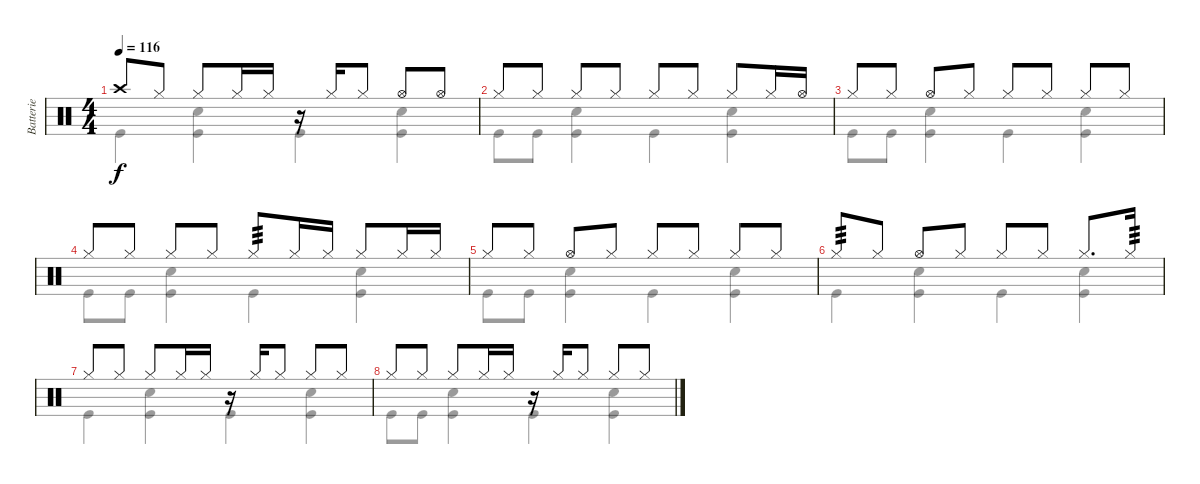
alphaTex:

\track ("Batterie" "Batterie") {instrument percussion}
\staff {score}
\articulation defaults
\voice
\ts (4 4)
\tempo 116
\clef neutral
\ks c "Crash high (hit)".8{dy f volume 5} "Hi-Hat (closed)".8 "Hi-Hat (closed)".8 "Hi-Hat (closed)".16 "Hi-Hat (closed)".16
r.16 "Hi-Hat (closed)".16 "Hi-Hat (closed)".8 "Hi-Hat (open)".8 "Hi-Hat (open)".8 |
"Hi-Hat (closed)".8 "Hi-Hat (closed)".8 "Hi-Hat (closed)".8 "Hi-Hat (closed)".8 "Hi-Hat (closed)".8 "Hi-Hat (closed)".8 "Hi-Hat (closed)".8 "Hi-Hat (closed)".16 "Hi-Hat (open)".16 |
"Hi-Hat (closed)".8 "Hi-Hat (closed)".8 "Hi-Hat (open)".8 "Hi-Hat (closed)".8 "Hi-Hat (closed)".8 "Hi-Hat (closed)".8 "Hi-Hat (closed)".8 "Hi-Hat (closed)".8 |
"Hi-Hat (closed)".8 "Hi-Hat (closed)".8 "Hi-Hat (closed)".8 "Hi-Hat (closed)".8 "Hi-Hat (closed)".8{tp 3} "Hi-Hat (closed)".16 "Hi-Hat (closed)".16 "Hi-Hat (closed)".8 "Hi-Hat (closed)".16 "Hi-Hat (closed)".16 |
"Hi-Hat (closed)".8{volume 0} "Hi-Hat (closed)".8 "Hi-Hat (open)".8 "Hi-Hat (closed)".8 "Hi-Hat (closed)".8 "Hi-Hat (closed)".8 "Hi-Hat (closed)".8 "Hi-Hat (closed)".8 |
"Hi-Hat (closed)".8{tp 3} "Hi-Hat (closed)".8 "Hi-Hat (open)".8 "Hi-Hat (closed)".8 "Hi-Hat (closed)".8 "Hi-Hat (closed)".8 "Hi-Hat (closed)".8{d} "Hi-Hat (closed)".16{tp 3} |
"Hi-Hat (closed)".8 "Hi-Hat (closed)".8 "Hi-Hat (closed)".8 "Hi-Hat (closed)".16 "Hi-Hat (closed)".16 r.16 "Hi-Hat (closed)".16 "Hi-Hat (closed)".8 "Hi-Hat (closed)".8 "Hi-Hat (closed)".8 |
"Hi-Hat (closed)".8 "Hi-Hat (closed)".8 "Hi-Hat (closed)".8 "Hi-Hat (closed)".16 "Hi-Hat (closed)".16 r.16 "Hi-Hat (closed)".16 "Hi-Hat (closed)".8 "Hi-Hat (closed)".8 "Hi-Hat (closed)".8
\voice
\clef neutral
\ottava regular
\simile none
\ks c "Kick (hit)".4{dy f}
("Snare (hit) 2" "Kick (hit)").4 "Kick (hit)".4 ("Snare (hit) 2" "Kick (hit)").4 |
"Kick (hit)".8 "Kick (hit)".8 ("Snare (hit) 2" "Kick (hit)").4 "Kick (hit)".4 ("Snare (hit) 2" "Kick (hit)").4 |
"Kick (hit)".8 "Kick (hit)".8 ("Snare (hit) 2" "Kick (hit)").4 "Kick (hit)".4 ("Snare (hit) 2" "Kick (hit)").4 |
"Kick (hit)".8 "Kick (hit)".8 ("Snare (hit) 2" "Kick (hit)").4 "Kick (hit)".4 ("Snare (hit) 2" "Kick (hit)").4 |
"Kick (hit)".8 "Kick (hit)".8 ("Snare (hit) 2" "Kick (hit)").4 "Kick (hit)".4 ("Snare (hit) 2" "Kick (hit)").4 |
"Kick (hit)".4 ("Snare (hit) 2" "Kick (hit)").4 "Kick (hit)".4 ("Snare (hit) 2" "Kick (hit)").4 |
"Kick (hit)".4 ("Snare (hit) 2" "Kick (hit)").4 "Kick (hit)".4 ("Snare (hit) 2" "Kick (hit)").4 |
"Kick (hit)".8 "Kick (hit)".8 ("Snare (hit) 2" "Kick (hit)").4 "Kick (hit)".4 ("Snare (hit) 2" "Kick (hit)").4
